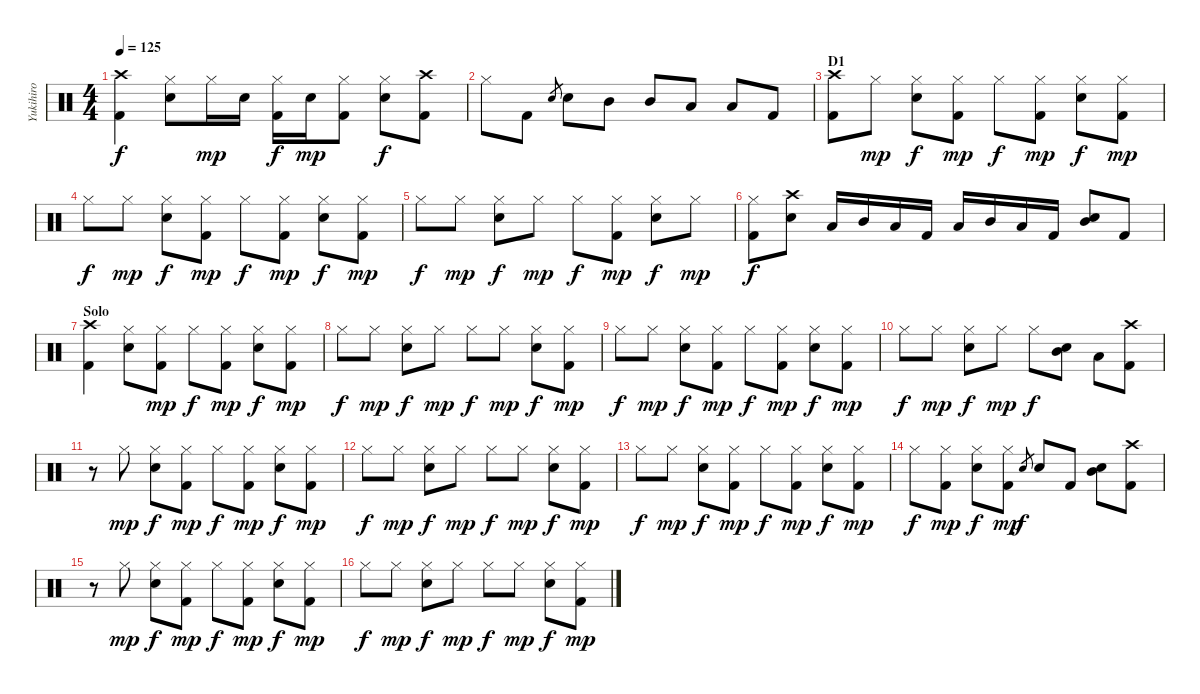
\track ("Yukihiro" "Yukihiro") {instrument percussion}
\staff {score}
\articulation defaults
\ts (4 4)
\tempo 125
\clef neutral
\ks c
("Crash high (hit)" "Kick (hit) 2").4{dy f} ("Hi-Hat (closed)" "Electric Snare (hit)").8 "Hi-Hat (closed)".16{dy mp} "Electric Snare (hit)".16 ("Hi-Hat (closed)" "Kick (hit) 2").16{dy f} "Electric Snare (hit)".16{dy mp} ("Hi-Hat (closed)" "Kick (hit) 2").8 ("Hi-Hat (closed)" "Electric Snare (hit)").8{dy f} ("Crash high (hit)" "Kick (hit) 2").8 |
"Hi-Hat (closed)".8 "Kick (hit) 2".8 "Electric Snare (hit)".8{gr} "Electric Snare (hit)".8 "Mid Tom (hit)".8 "Mid Tom (hit)".8 "Low Tom (hit)".8 "Low Tom (hit)".8 "Kick (hit) 2".8 |
\section ("" "D1")
("Crash high (hit)" "Kick (hit) 2").8 "Hi-Hat (closed)".8{dy mp} ("Hi-Hat (closed)" "Electric Snare (hit)").8{dy f} ("Hi-Hat (closed)" "Kick (hit) 2").8{dy mp} "Hi-Hat (closed)".8{dy f} ("Hi-Hat (closed)" "Kick (hit) 2").8{dy mp} ("Hi-Hat (closed)" "Electric Snare (hit)").8{dy f} ("Hi-Hat (closed)" "Kick (hit) 2").8{dy mp} |
"Hi-Hat (closed)".8{dy f} "Hi-Hat (closed)".8{dy mp} ("Hi-Hat (closed)" "Electric Snare (hit)").8{dy f} ("Hi-Hat (closed)" "Kick (hit) 2").8{dy mp} "Hi-Hat (closed)".8{dy f} ("Hi-Hat (closed)" "Kick (hit) 2").8{dy mp} ("Hi-Hat (closed)" "Electric Snare (hit)").8{dy f} ("Hi-Hat (closed)" "Kick (hit) 2").8{dy mp} |
"Hi-Hat (closed)".8{dy f} "Hi-Hat (closed)".8{dy mp} ("Hi-Hat (closed)" "Electric Snare (hit)").8{dy f} "Hi-Hat (closed)".8{dy mp} "Hi-Hat (closed)".8{dy f} ("Hi-Hat (closed)" "Kick (hit) 2").8{dy mp} ("Hi-Hat (closed)" "Electric Snare (hit)").8{dy f} "Hi-Hat (closed)".8{dy mp} |
("Hi-Hat (closed)" "Kick (hit) 2").8{dy f} ("Crash high (hit)" "Electric Snare (hit)").8 "Low Tom (hit)".16 "Mid Tom (hit)".16 "Low Tom (hit)".16 "Kick (hit) 2".16 "Low Tom (hit)".16 "Mid Tom (hit)".16 "Low Tom (hit)".16 "Kick (hit) 2".16 ("Electric Snare (hit)" "Mid Tom (hit)").8 "Kick (hit) 2".8 |
\section ("" "Solo")
("Crash high (hit)" "Kick (hit) 2").4 ("Hi-Hat (closed)" "Electric Snare (hit)").8 ("Hi-Hat (closed)" "Kick (hit) 2").8{dy mp} "Hi-Hat (closed)".8{dy f} ("Hi-Hat (closed)" "Kick (hit) 2").8{dy mp} ("Hi-Hat (closed)" "Electric Snare (hit)").8{dy f} ("Hi-Hat (closed)" "Kick (hit) 2").8{dy mp} |
"Hi-Hat (closed)".8{dy f} "Hi-Hat (closed)".8{dy mp} ("Hi-Hat (closed)" "Electric Snare (hit)").8{dy f} "Hi-Hat (closed)".8{dy mp} "Hi-Hat (closed)".8{dy f} "Hi-Hat (closed)".8{dy mp} ("Hi-Hat (closed)" "Electric Snare (hit)").8{dy f} ("Hi-Hat (closed)" "Kick (hit) 2").8{dy mp} |
"Hi-Hat (closed)".8{dy f} "Hi-Hat (closed)".8{dy mp} ("Hi-Hat (closed)" "Electric Snare (hit)").8{dy f} ("Hi-Hat (closed)" "Kick (hit) 2").8{dy mp} "Hi-Hat (closed)".8{dy f} ("Hi-Hat (closed)" "Kick (hit) 2").8{dy mp} ("Hi-Hat (closed)" "Electric Snare (hit)").8{dy f} ("Hi-Hat (closed)" "Kick (hit) 2").8{dy mp} |
"Hi-Hat (closed)".8{dy f} "Hi-Hat (closed)".8{dy mp} ("Hi-Hat (closed)" "Electric Snare (hit)").8{dy f} "Hi-Hat (closed)".8{dy mp} "Hi-Hat (closed)".8{dy f} ("Electric Snare (hit)" "Mid Tom (hit)").8 "Low Tom (hit)".8 ("Crash high (hit)" "Kick (hit) 2").8 |
r.8 "Hi-Hat (closed)".8{dy mp} ("Hi-Hat (closed)" "Electric Snare (hit)").8{dy f} ("Hi-Hat (closed)" "Kick (hit) 2").8{dy mp} "Hi-Hat (closed)".8{dy f} ("Hi-Hat (closed)" "Kick (hit) 2").8{dy mp} ("Hi-Hat (closed)" "Electric Snare (hit)").8{dy f} ("Hi-Hat (closed)" "Kick (hit) 2").8{dy mp} |
"Hi-Hat (closed)".8{dy f} "Hi-Hat (closed)".8{dy mp} ("Hi-Hat (closed)" "Electric Snare (hit)").8{dy f} "Hi-Hat (closed)".8{dy mp} "Hi-Hat (closed)".8{dy f} "Hi-Hat (closed)".8{dy mp} ("Hi-Hat (closed)" "Electric Snare (hit)").8{dy f} ("Hi-Hat (closed)" "Kick (hit) 2").8{dy mp} |
"Hi-Hat (closed)".8{dy f} "Hi-Hat (closed)".8{dy mp} ("Hi-Hat (closed)" "Electric Snare (hit)").8{dy f} ("Hi-Hat (closed)" "Kick (hit) 2").8{dy mp} "Hi-Hat (closed)".8{dy f} ("Hi-Hat (closed)" "Kick (hit) 2").8{dy mp} ("Hi-Hat (closed)" "Electric Snare (hit)").8{dy f} ("Hi-Hat (closed)" "Kick (hit) 2").8{dy mp} |
"Hi-Hat (closed)".8{dy f} ("Hi-Hat (closed)" "Kick (hit) 2").8{dy mp} ("Hi-Hat (closed)" "Electric Snare (hit)").8{dy f} ("Hi-Hat (closed)" "Kick (hit) 2").8{dy mp} "Electric Snare (hit)".8{gr dy f} "Electric Snare (hit)".8 "Kick (hit) 2".8 ("Electric Snare (hit)" "Mid Tom (hit)").8 ("Crash high (hit)" "Kick (hit) 2").8 |
r.8 "Hi-Hat (closed)".8{dy mp} ("Hi-Hat (closed)" "Electric Snare (hit)").8{dy f} ("Hi-Hat (closed)" "Kick (hit) 2").8{dy mp} "Hi-Hat (closed)".8{dy f} ("Hi-Hat (closed)" "Kick (hit) 2").8{dy mp} ("Hi-Hat (closed)" "Electric Snare (hit)").8{dy f} ("Hi-Hat (closed)" "Kick (hit) 2").8{dy mp} |
"Hi-Hat (closed)".8{dy f} "Hi-Hat (closed)".8{dy mp} ("Hi-Hat (closed)" "Electric Snare (hit)").8{dy f} "Hi-Hat (closed)".8{dy mp} "Hi-Hat (closed)".8{dy f} "Hi-Hat (closed)".8{dy mp} ("Hi-Hat (closed)" "Electric Snare (hit)").8{dy f} ("Hi-Hat (closed)" "Kick (hit) 2").8{dy mp}
